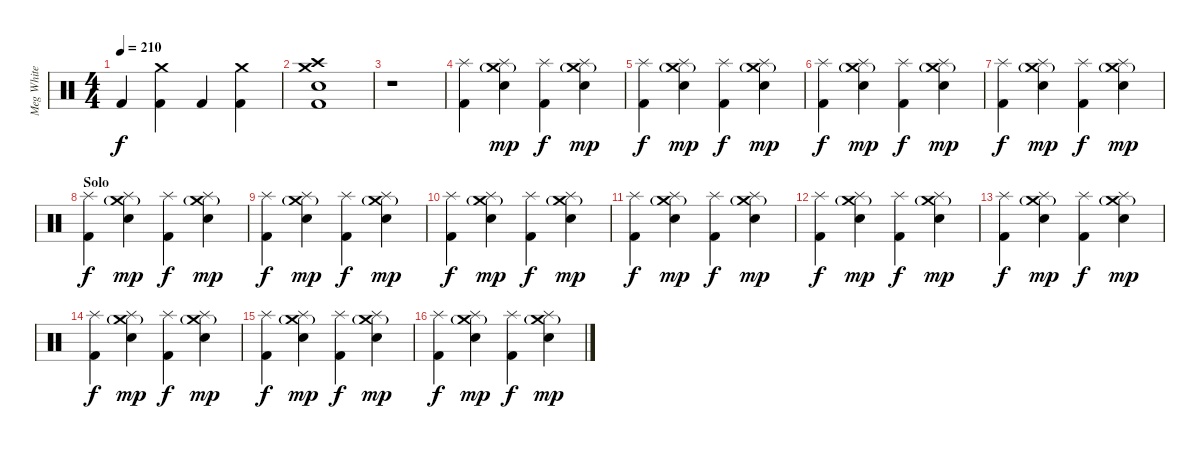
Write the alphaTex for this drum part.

\track ("Meg White (Drums)" "Meg White ") {instrument percussion}
\staff {score}
\articulation defaults
\ts (4 4)
\tempo 210
\clef neutral
\ks c "Kick (hit) 2".4{dy f}
("Kick (hit) 2" "Crash medium (hit)").4 "Kick (hit) 2".4 ("Kick (hit) 2" "Crash medium (hit)").4 |
("Kick (hit) 2" "Electric Snare (hit)" "Crash high (hit)" "Crash medium (hit)").1 |
r.1 |
("Kick (hit) 2" "Splash (hit)").4 ("Electric Snare (hit)" "Splash (hit)" "Crash medium (hit)"{g}).4{dy mp} ("Kick (hit) 2" "Splash (hit)").4{dy f} ("Electric Snare (hit)" "Splash (hit)" "Crash medium (hit)"{g}).4{dy mp} |
("Kick (hit) 2" "Splash (hit)").4{dy f} ("Electric Snare (hit)" "Splash (hit)" "Crash medium (hit)"{g}).4{dy mp} ("Kick (hit) 2" "Splash (hit)").4{dy f} ("Electric Snare (hit)" "Splash (hit)" "Crash medium (hit)"{g}).4{dy mp} |
("Kick (hit) 2" "Splash (hit)").4{dy f} ("Electric Snare (hit)" "Splash (hit)" "Crash medium (hit)"{g}).4{dy mp} ("Kick (hit) 2" "Splash (hit)").4{dy f} ("Electric Snare (hit)" "Splash (hit)" "Crash medium (hit)"{g}).4{dy mp} |
("Kick (hit) 2" "Splash (hit)").4{dy f} ("Electric Snare (hit)" "Splash (hit)" "Crash medium (hit)"{g}).4{dy mp} ("Kick (hit) 2" "Splash (hit)").4{dy f} ("Electric Snare (hit)" "Splash (hit)" "Crash medium (hit)"{g}).4{dy mp} |
\section ("" "Solo")
("Kick (hit) 2" "Splash (hit)").4{dy f} ("Electric Snare (hit)" "Splash (hit)" "Crash medium (hit)"{g}).4{dy mp} ("Kick (hit) 2" "Splash (hit)").4{dy f} ("Electric Snare (hit)" "Splash (hit)" "Crash medium (hit)"{g}).4{dy mp} |
("Kick (hit) 2" "Splash (hit)").4{dy f} ("Electric Snare (hit)" "Splash (hit)" "Crash medium (hit)"{g}).4{dy mp} ("Kick (hit) 2" "Splash (hit)").4{dy f} ("Electric Snare (hit)" "Splash (hit)" "Crash medium (hit)"{g}).4{dy mp} |
("Kick (hit) 2" "Splash (hit)").4{dy f} ("Electric Snare (hit)" "Splash (hit)" "Crash medium (hit)"{g}).4{dy mp} ("Kick (hit) 2" "Splash (hit)").4{dy f} ("Electric Snare (hit)" "Splash (hit)" "Crash medium (hit)"{g}).4{dy mp} |
("Kick (hit) 2" "Splash (hit)").4{dy f} ("Electric Snare (hit)" "Splash (hit)" "Crash medium (hit)"{g}).4{dy mp} ("Kick (hit) 2" "Splash (hit)").4{dy f} ("Electric Snare (hit)" "Splash (hit)" "Crash medium (hit)"{g}).4{dy mp} |
("Kick (hit) 2" "Splash (hit)").4{dy f} ("Electric Snare (hit)" "Splash (hit)" "Crash medium (hit)"{g}).4{dy mp} ("Kick (hit) 2" "Splash (hit)").4{dy f} ("Electric Snare (hit)" "Splash (hit)" "Crash medium (hit)"{g}).4{dy mp} |
("Kick (hit) 2" "Splash (hit)").4{dy f} ("Electric Snare (hit)" "Splash (hit)" "Crash medium (hit)"{g}).4{dy mp} ("Kick (hit) 2" "Splash (hit)").4{dy f} ("Electric Snare (hit)" "Splash (hit)" "Crash medium (hit)"{g}).4{dy mp} |
("Kick (hit) 2" "Splash (hit)").4{dy f} ("Electric Snare (hit)" "Splash (hit)" "Crash medium (hit)"{g}).4{dy mp} ("Kick (hit) 2" "Splash (hit)").4{dy f} ("Electric Snare (hit)" "Splash (hit)" "Crash medium (hit)"{g}).4{dy mp} |
("Kick (hit) 2" "Splash (hit)").4{dy f} ("Electric Snare (hit)" "Splash (hit)" "Crash medium (hit)"{g}).4{dy mp} ("Kick (hit) 2" "Splash (hit)").4{dy f} ("Electric Snare (hit)" "Splash (hit)" "Crash medium (hit)"{g}).4{dy mp} |
("Kick (hit) 2" "Splash (hit)").4{dy f} ("Electric Snare (hit)" "Splash (hit)" "Crash medium (hit)"{g}).4{dy mp} ("Kick (hit) 2" "Splash (hit)").4{dy f} ("Electric Snare (hit)" "Splash (hit)" "Crash medium (hit)"{g}).4{dy mp}
